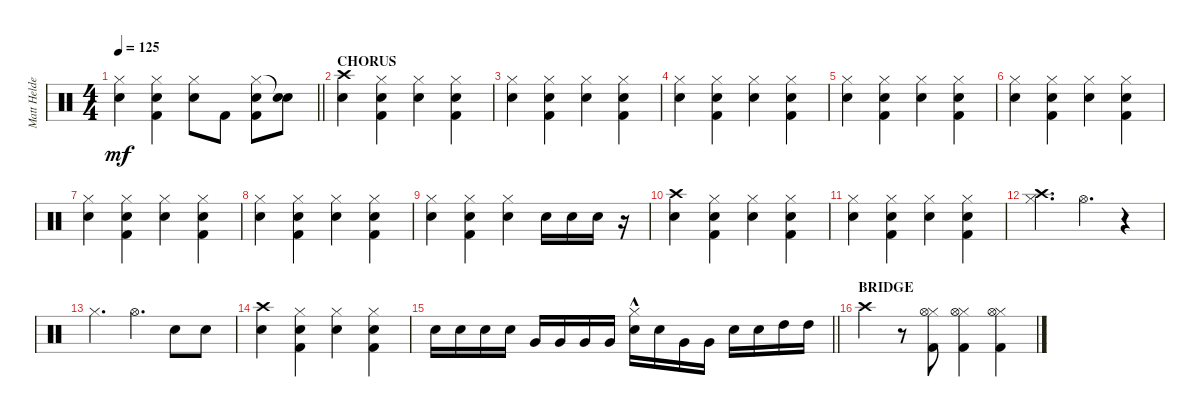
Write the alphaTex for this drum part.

\track ("Matt Helders" "Matt Helde") {instrument percussion}
\staff {score}
\articulation defaults
\ts (4 4)
\tempo 125
\clef neutral
\barLineRight lightlight
\ks c
("Hi-Hat (closed)" "Electric Snare (hit)").4{dy mf} ("Hi-Hat (closed)" "Electric Snare (hit)" "Kick (hit) 2").4 ("Hi-Hat (closed)" "Electric Snare (hit)").8 "Kick (hit) 2".8 ("Hi-Hat (closed)" "Electric Snare (hit)" "Kick (hit) 2").8 ("Snare (hit)"{t} "Electric Snare (hit)").8 |
\section ("" "CHORUS")
("Crash high (hit)" "Electric Snare (hit)").4 ("Hi-Hat (closed)" "Electric Snare (hit)" "Kick (hit) 2").4 ("Hi-Hat (closed)" "Electric Snare (hit)").4 ("Hi-Hat (closed)" "Electric Snare (hit)" "Kick (hit) 2").4 |
("Hi-Hat (closed)" "Electric Snare (hit)").4 ("Hi-Hat (closed)" "Electric Snare (hit)" "Kick (hit) 2").4 ("Hi-Hat (closed)" "Electric Snare (hit)").4 ("Hi-Hat (closed)" "Electric Snare (hit)" "Kick (hit) 2").4 |
("Hi-Hat (closed)" "Electric Snare (hit)").4 ("Hi-Hat (closed)" "Electric Snare (hit)" "Kick (hit) 2").4 ("Hi-Hat (closed)" "Electric Snare (hit)").4 ("Hi-Hat (closed)" "Electric Snare (hit)" "Kick (hit) 2").4 |
("Hi-Hat (closed)" "Electric Snare (hit)").4 ("Hi-Hat (closed)" "Electric Snare (hit)" "Kick (hit) 2").4 ("Hi-Hat (closed)" "Electric Snare (hit)").4 ("Hi-Hat (closed)" "Electric Snare (hit)" "Kick (hit) 2").4 |
("Hi-Hat (closed)" "Electric Snare (hit)").4 ("Hi-Hat (closed)" "Electric Snare (hit)" "Kick (hit) 2").4 ("Hi-Hat (closed)" "Electric Snare (hit)").4 ("Hi-Hat (closed)" "Electric Snare (hit)" "Kick (hit) 2").4 |
("Hi-Hat (closed)" "Electric Snare (hit)").4 ("Hi-Hat (closed)" "Electric Snare (hit)" "Kick (hit) 2").4 ("Hi-Hat (closed)" "Electric Snare (hit)").4 ("Hi-Hat (closed)" "Electric Snare (hit)" "Kick (hit) 2").4 |
("Hi-Hat (closed)" "Electric Snare (hit)").4 ("Hi-Hat (closed)" "Electric Snare (hit)" "Kick (hit) 2").4 ("Hi-Hat (closed)" "Electric Snare (hit)").4 ("Hi-Hat (closed)" "Electric Snare (hit)" "Kick (hit) 2").4 |
("Hi-Hat (closed)" "Electric Snare (hit)").4 ("Hi-Hat (closed)" "Electric Snare (hit)" "Kick (hit) 2").4 ("Hi-Hat (closed)" "Electric Snare (hit)").4 "Electric Snare (hit)".16 "Electric Snare (hit)".16 "Electric Snare (hit)".16 r.16 |
("Crash high (hit)" "Electric Snare (hit)").4 ("Hi-Hat (closed)" "Electric Snare (hit)" "Kick (hit) 2").4 ("Hi-Hat (closed)" "Electric Snare (hit)").4 ("Hi-Hat (closed)" "Electric Snare (hit)" "Kick (hit) 2").4 |
("Hi-Hat (closed)" "Electric Snare (hit)").4 ("Hi-Hat (closed)" "Electric Snare (hit)" "Kick (hit) 2").4 ("Hi-Hat (closed)" "Electric Snare (hit)").4 ("Hi-Hat (closed)" "Electric Snare (hit)" "Kick (hit) 2").4 |
("Crash high (hit)" "Hi-Hat (closed)").4{d} "Hi-Hat (open)".4{d} r.4 |
"Hi-Hat (closed)".4{d} "Hi-Hat (open)".4{d} "Electric Snare (hit)".8 "Electric Snare (hit)".8 |
("Crash high (hit)" "Electric Snare (hit)").4 ("Hi-Hat (closed)" "Electric Snare (hit)" "Kick (hit) 2").4 ("Hi-Hat (closed)" "Electric Snare (hit)").4 ("Hi-Hat (closed)" "Electric Snare (hit)" "Kick (hit) 2").4 |
\barLineRight lightlight "Electric Snare (hit)".16 "Electric Snare (hit)".16 "Electric Snare (hit)".16 "Electric Snare (hit)".16 "Very Low Tom (hit)".16 "Very Low Tom (hit)".16 "Very Low Tom (hit)".16 "Very Low Tom (hit)".16
("Hi-Hat (closed)"{hac} "Electric Snare (hit)").16 "Electric Snare (hit)".16 "Very Low Tom (hit)".16 "Very Low Tom (hit)".16 "Electric Snare (hit)".16 "Electric Snare (hit)".16 "High Tom (hit)".16 "High Tom (hit)".16 |
\section ("" "BRIDGE")
"Crash high (hit)".4 r.8 ("Hi-Hat (closed)" "Hi-Hat (open)" "Kick (hit) 2").8 ("Hi-Hat (closed)" "Hi-Hat (open)" "Kick (hit) 2").4 ("Hi-Hat (closed)" "Hi-Hat (open)" "Kick (hit) 2").4
